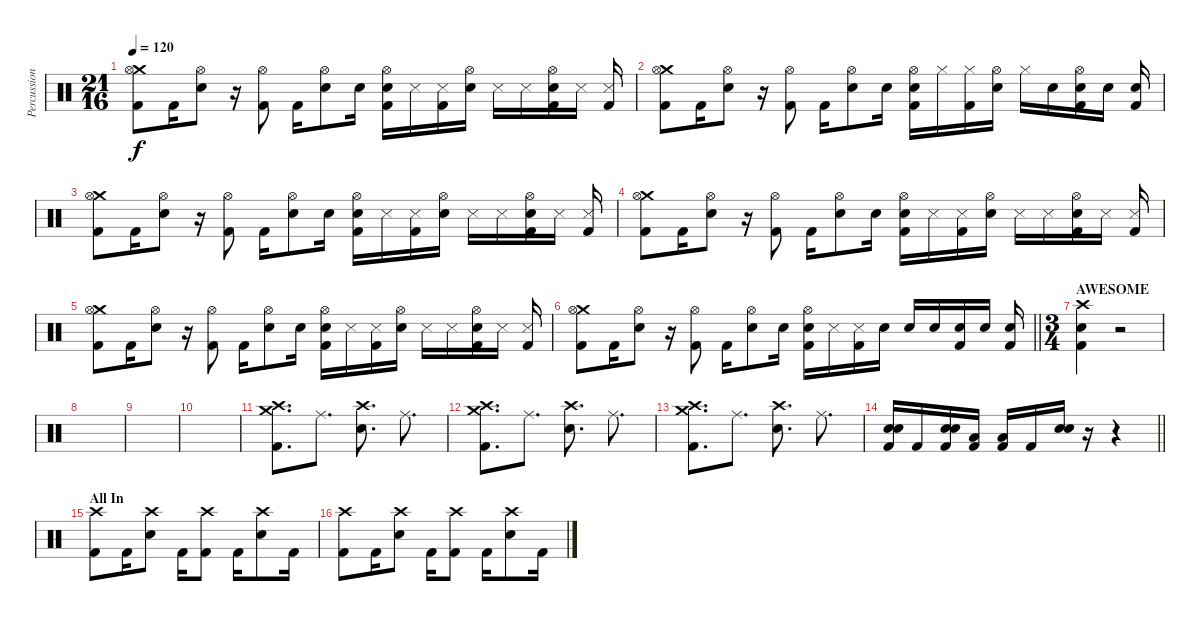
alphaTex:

\track ("Percussion" "Percussion") {instrument percussion}
\staff {score}
\articulation defaults
\ts (21 16)
\tempo 120
\clef neutral
\ks c
("Crash medium (hit)" "Hi-Hat (open)" "Kick (hit) 2").8{dy f} "Kick (hit) 2".16 ("Hi-Hat (open)" "Snare (hit) 2").8 r.16 ("Hi-Hat (open)" "Kick (hit) 2").8 "Kick (hit) 2".16 ("Hi-Hat (open)" "Snare (hit) 2").8 "Snare (hit) 2".16 ("Hi-Hat (open)" "Snare (hit) 2" "Kick (hit) 2").16 "Snare (side stick) 3".16 ("Snare (side stick) 3" "Kick (hit) 2").16 ("Hi-Hat (open)" "Snare (hit) 2").16 "Snare (side stick) 3".16 "Snare (side stick) 3".16 ("Hi-Hat (open)" "Snare (hit) 2" "Kick (hit) 2").16 "Snare (side stick) 3".16 ("Snare (side stick) 3" "Kick (hit) 2").16 |
("Crash medium (hit)" "Hi-Hat (open)" "Kick (hit) 2").8 "Kick (hit) 2".16 ("Hi-Hat (open)" "Snare (hit) 2").8 r.16 ("Hi-Hat (open)" "Kick (hit) 2").8 "Kick (hit) 2".16 ("Hi-Hat (open)" "Snare (hit) 2").8 "Snare (hit) 2".16 ("Hi-Hat (open)" "Snare (hit) 2" "Kick (hit) 2").16 "Hi-Hat (closed)".16 ("Hi-Hat (closed)" "Kick (hit) 2").16 ("Hi-Hat (open)" "Snare (hit) 2").16 "Hi-Hat (closed)".16 "Snare (hit) 2".16 ("Hi-Hat (open)" "Snare (hit) 2" "Kick (hit) 2").16 "Snare (hit) 2".16 ("Snare (hit) 2" "Kick (hit) 2").16 |
("Crash medium (hit)" "Hi-Hat (open)" "Kick (hit) 2").8 "Kick (hit) 2".16 ("Hi-Hat (open)" "Snare (hit) 2").8 r.16 ("Hi-Hat (open)" "Kick (hit) 2").8 "Kick (hit) 2".16 ("Hi-Hat (open)" "Snare (hit) 2").8 "Snare (hit) 2".16 ("Hi-Hat (open)" "Snare (hit) 2" "Kick (hit) 2").16 "Snare (side stick) 3".16 ("Snare (side stick) 3" "Kick (hit) 2").16 ("Hi-Hat (open)" "Snare (hit) 2").16 "Snare (side stick) 3".16 "Snare (side stick) 3".16 ("Hi-Hat (open)" "Snare (hit) 2" "Kick (hit) 2").16 "Snare (side stick) 3".16 ("Snare (side stick) 3" "Kick (hit) 2").16 |
("Crash medium (hit)" "Hi-Hat (open)" "Kick (hit) 2").8 "Kick (hit) 2".16 ("Hi-Hat (open)" "Snare (hit) 2").8 r.16 ("Hi-Hat (open)" "Kick (hit) 2").8 "Kick (hit) 2".16 ("Hi-Hat (open)" "Snare (hit) 2").8 "Snare (hit) 2".16 ("Hi-Hat (open)" "Snare (hit) 2" "Kick (hit) 2").16 "Snare (side stick) 3".16 ("Snare (side stick) 3" "Kick (hit) 2").16 ("Hi-Hat (open)" "Snare (hit) 2").16 "Snare (side stick) 3".16 "Snare (side stick) 3".16 ("Hi-Hat (open)" "Snare (hit) 2" "Kick (hit) 2").16 "Snare (side stick) 3".16 ("Snare (side stick) 3" "Kick (hit) 2").16 |
("Crash medium (hit)" "Hi-Hat (open)" "Kick (hit) 2").8 "Kick (hit) 2".16 ("Hi-Hat (open)" "Snare (hit) 2").8 r.16 ("Hi-Hat (open)" "Kick (hit) 2").8 "Kick (hit) 2".16 ("Hi-Hat (open)" "Snare (hit) 2").8 "Snare (hit) 2".16 ("Hi-Hat (open)" "Snare (hit) 2" "Kick (hit) 2").16 "Snare (side stick) 3".16 ("Snare (side stick) 3" "Kick (hit) 2").16 ("Hi-Hat (open)" "Snare (hit) 2").16 "Snare (side stick) 3".16 "Snare (side stick) 3".16 ("Hi-Hat (open)" "Snare (hit) 2" "Kick (hit) 2").16 "Snare (side stick) 3".16 ("Snare (side stick) 3" "Kick (hit) 2").16 |
\barLineRight lightlight
("Crash medium (hit)" "Hi-Hat (open)" "Kick (hit) 2").8 "Kick (hit) 2".16 ("Hi-Hat (open)" "Snare (hit) 2").8 r.16 ("Hi-Hat (open)" "Kick (hit) 2").8 "Kick (hit) 2".16 ("Hi-Hat (open)" "Snare (hit) 2").8 "Snare (hit) 2".16 ("Hi-Hat (open)" "Snare (hit) 2" "Kick (hit) 2").16 "Snare (side stick) 3".16 ("Snare (side stick) 3" "Kick (hit) 2").16 "Snare (hit) 2".16 "Snare (hit) 2".16 "Snare (hit) 2".16 ("Snare (hit) 2" "Kick (hit) 2").16 "Snare (hit) 2".16 ("Snare (hit) 2" "Kick (hit) 2").16 |
\ts (3 4)
\section ("" "AWESOME")
("Crash high (hit)" "Snare (hit) 2" "Kick (hit) 2").4 r.2 |
|
|
|
("Crash medium (hit)" "Crash high (hit)" "Kick (hit) 2").8{d} "Ride (middle)".8{d} ("Crash high (hit)" "Snare (hit) 2").8{d} "Ride (middle)".8{d} |
("Crash medium (hit)" "Crash high (hit)" "Kick (hit) 2").8{d} "Ride (middle)".8{d} ("Crash high (hit)" "Snare (hit) 2").8{d} "Ride (middle)".8{d} |
("Crash medium (hit)" "Crash high (hit)" "Kick (hit) 2").8{d} "Ride (middle)".8{d} ("Crash high (hit)" "Snare (hit) 2").8{d} "Ride (middle)".8{d} |
\barLineRight lightlight
("Snare (hit) 2" "Snare (hit) 2" "Kick (hit) 2").16 "Kick (hit) 2".16 ("Snare (hit) 2" "Snare (hit) 2" "Kick (hit) 2").16 ("Low Tom (hit)" "Kick (hit) 2").16 ("Low Tom (hit)" "Kick (hit) 2").16 "Kick (hit) 2".16 ("Snare (hit) 2" "Snare (hit) 2").16 r.16 r.4 |
\section ("" "All In")
("Crash high (hit)" "Kick (hit) 2").8 "Kick (hit) 2".16 ("Crash high (hit)" "Snare (hit) 2").8 "Kick (hit) 2".16 ("Crash high (hit)" "Kick (hit) 2").8 "Kick (hit) 2".16 ("Crash high (hit)" "Snare (hit) 2").8 "Kick (hit) 2".16 |
("Crash high (hit)" "Kick (hit) 2").8 "Kick (hit) 2".16 ("Crash high (hit)" "Snare (hit) 2").8 "Kick (hit) 2".16 ("Crash high (hit)" "Kick (hit) 2").8 "Kick (hit) 2".16 ("Crash high (hit)" "Snare (hit) 2").8 "Kick (hit) 2".16
